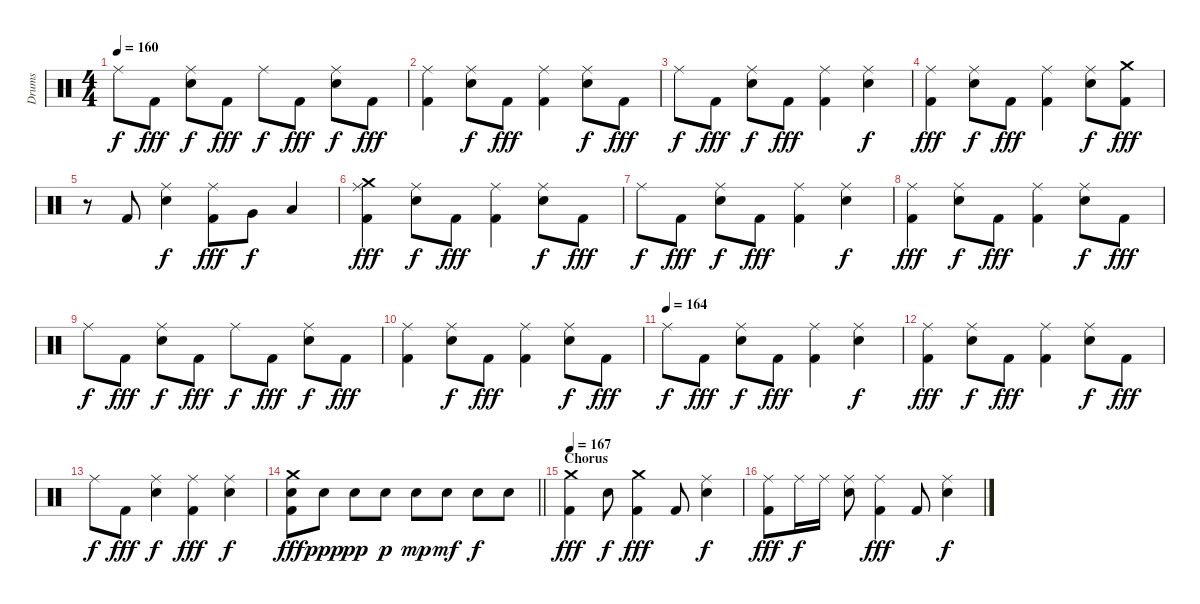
\track ("Drums" "Drums") {instrument percussion}
\staff {score}
\articulation defaults
\ts (4 4)
\tempo 160
\clef neutral
\ks c "Ride (middle)".8{dy f} "Kick (hit) 2".8{dy fff}
("Ride (middle)" "Electric Snare (hit)").8{dy f} "Kick (hit) 2".8{dy fff} "Ride (middle)".8{dy f} "Kick (hit) 2".8{dy fff} ("Ride (middle)" "Electric Snare (hit)").8{dy f} "Kick (hit) 2".8{dy fff} |
("Ride (middle)" "Kick (hit) 2").4 ("Ride (middle)" "Electric Snare (hit)").8{dy f} "Kick (hit) 2".8{dy fff} ("Ride (middle)" "Kick (hit) 2").4 ("Ride (middle)" "Electric Snare (hit)").8{dy f} "Kick (hit) 2".8{dy fff} |
"Ride (middle)".8{dy f} "Kick (hit) 2".8{dy fff} ("Ride (middle)" "Electric Snare (hit)").8{dy f} "Kick (hit) 2".8{dy fff} ("Ride (middle)" "Kick (hit) 2").4 ("Ride (middle)" "Electric Snare (hit)").4{dy f} |
("Ride (middle)" "Kick (hit) 2").4{dy fff} ("Ride (middle)" "Electric Snare (hit)").8{dy f} "Kick (hit) 2".8{dy fff} ("Ride (middle)" "Kick (hit) 2").4 ("Ride (middle)" "Electric Snare (hit)").8{dy f} ("Crash medium (hit)" "Kick (hit) 2").8{dy fff} |
r.8 "Kick (hit) 2".8 ("Ride (middle)" "Electric Snare (hit)").4{dy f} ("Ride (middle)" "Kick (hit) 2").8{dy fff} "Very Low Tom (hit)".8{dy f} "Low Floor Tom (hit)".4 |
("Crash medium (hit)" "Ride (middle)" "Kick (hit) 2").4{dy fff} ("Ride (middle)" "Electric Snare (hit)").8{dy f} "Kick (hit) 2".8{dy fff} ("Ride (middle)" "Kick (hit) 2").4 ("Ride (middle)" "Electric Snare (hit)").8{dy f} "Kick (hit) 2".8{dy fff} |
"Ride (middle)".8{dy f} "Kick (hit) 2".8{dy fff} ("Ride (middle)" "Electric Snare (hit)").8{dy f} "Kick (hit) 2".8{dy fff} ("Ride (middle)" "Kick (hit) 2").4 ("Ride (middle)" "Electric Snare (hit)").4{dy f} |
("Ride (middle)" "Kick (hit) 2").4{dy fff} ("Ride (middle)" "Electric Snare (hit)").8{dy f} "Kick (hit) 2".8{dy fff} ("Ride (middle)" "Kick (hit) 2").4 ("Ride (middle)" "Electric Snare (hit)").8{dy f} "Kick (hit) 2".8{dy fff} |
"Ride (middle)".8{dy f} "Kick (hit) 2".8{dy fff} ("Ride (middle)" "Electric Snare (hit)").8{dy f} "Kick (hit) 2".8{dy fff} "Ride (middle)".8{dy f} "Kick (hit) 2".8{dy fff} ("Ride (middle)" "Electric Snare (hit)").8{dy f} "Kick (hit) 2".8{dy fff} |
("Ride (middle)" "Kick (hit) 2").4 ("Ride (middle)" "Electric Snare (hit)").8{dy f} "Kick (hit) 2".8{dy fff} ("Ride (middle)" "Kick (hit) 2").4 ("Ride (middle)" "Electric Snare (hit)").8{dy f} "Kick (hit) 2".8{dy fff} |
\tempo (164)
"Ride (middle)".8{dy f} "Kick (hit) 2".8{dy fff} ("Ride (middle)" "Electric Snare (hit)").8{dy f} "Kick (hit) 2".8{dy fff} ("Ride (middle)" "Kick (hit) 2").4 ("Ride (middle)" "Electric Snare (hit)").4{dy f} |
("Ride (middle)" "Kick (hit) 2").4{dy fff} ("Ride (middle)" "Electric Snare (hit)").8{dy f} "Kick (hit) 2".8{dy fff} ("Ride (middle)" "Kick (hit) 2").4 ("Ride (middle)" "Electric Snare (hit)").8{dy f} "Kick (hit) 2".8{dy fff} |
"Ride (middle)".8{dy f} "Kick (hit) 2".8{dy fff} ("Ride (middle)" "Electric Snare (hit)").4{dy f} ("Ride (middle)" "Kick (hit) 2").4{dy fff} ("Ride (middle)" "Electric Snare (hit)").4{dy f} |
\barLineRight lightlight
("Crash medium (hit)" "Electric Snare (hit)" "Kick (hit) 2").8{dy fff} "Electric Snare (hit)".8{dy ppp} "Electric Snare (hit)".8{dy pp} "Electric Snare (hit)".8{dy p} "Electric Snare (hit)".8{dy mp} "Electric Snare (hit)".8{dy mf} "Electric Snare (hit)".8{dy f} "Electric Snare (hit)".8 |
\section ("" "Chorus")
\tempo 167
("Crash medium (hit)" "Kick (hit) 2").4{dy fff} "Electric Snare (hit)".8{dy f} ("Crash medium (hit)" "Kick (hit) 2").4{dy fff} "Kick (hit) 2".8 ("Ride (middle)" "Electric Snare (hit)").4{dy f} |
("Ride (middle)" "Kick (hit) 2").8{dy fff} "Ride (middle)".16{dy f} "Ride (middle)".16 ("Ride (middle)" "Electric Snare (hit)").8 ("Ride (middle)" "Kick (hit) 2").4{dy fff} "Kick (hit) 2".8 ("Ride (middle)" "Electric Snare (hit)").4{dy f}
